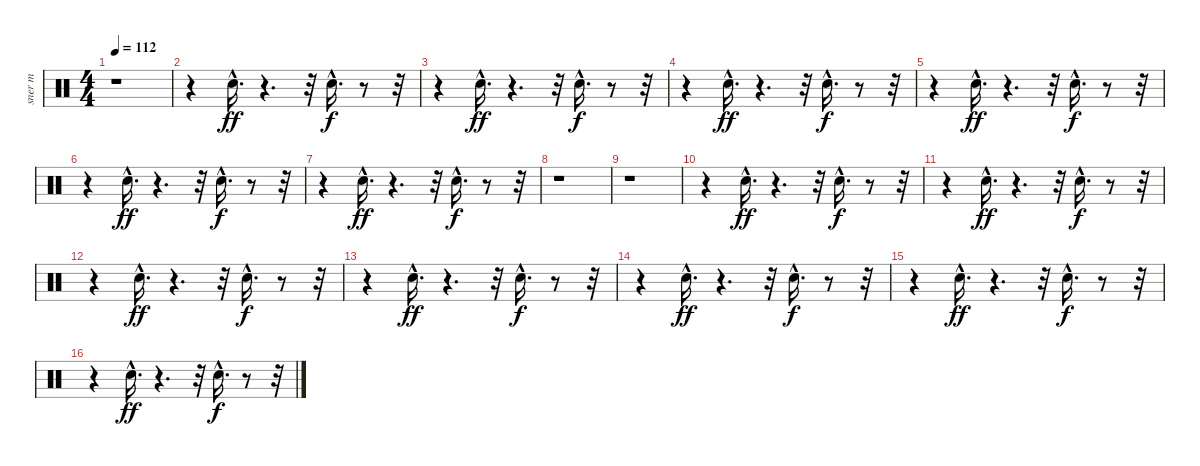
\track ("sner m" "sner m") {instrument percussion}
\staff {score}
\articulation defaults
\ts (4 4)
\tempo 112
\clef neutral
\ks c
r.1{dy ff} |
r.4 "Snare (hit) 2"{hac}.16{d} r.4{d} r.32 "Snare (hit) 2"{hac}.16{d dy f} r.8 r.32 |
r.4 "Snare (hit) 2"{hac}.16{d dy ff} r.4{d} r.32 "Snare (hit) 2"{hac}.16{d dy f} r.8 r.32 |
r.4 "Snare (hit) 2"{hac}.16{d dy ff} r.4{d} r.32 "Snare (hit) 2"{hac}.16{d dy f} r.8 r.32 |
r.4 "Snare (hit) 2"{hac}.16{d dy ff} r.4{d} r.32 "Snare (hit) 2"{hac}.16{d dy f} r.8 r.32 |
r.4 "Snare (hit) 2"{hac}.16{d dy ff} r.4{d} r.32 "Snare (hit) 2"{hac}.16{d dy f} r.8 r.32 |
r.4 "Snare (hit) 2"{hac}.16{d dy ff} r.4{d} r.32 "Snare (hit) 2"{hac}.16{d dy f} r.8 r.32 |
r.1 |
r.1 |
r.4 "Snare (hit) 2"{hac}.16{d dy ff} r.4{d} r.32 "Snare (hit) 2"{hac}.16{d dy f} r.8 r.32 |
r.4 "Snare (hit) 2"{hac}.16{d dy ff} r.4{d} r.32 "Snare (hit) 2"{hac}.16{d dy f} r.8 r.32 |
r.4 "Snare (hit) 2"{hac}.16{d dy ff} r.4{d} r.32 "Snare (hit) 2"{hac}.16{d dy f} r.8 r.32 |
r.4 "Snare (hit) 2"{hac}.16{d dy ff} r.4{d} r.32 "Snare (hit) 2"{hac}.16{d dy f} r.8 r.32 |
r.4 "Snare (hit) 2"{hac}.16{d dy ff} r.4{d} r.32 "Snare (hit) 2"{hac}.16{d dy f} r.8 r.32 |
r.4 "Snare (hit) 2"{hac}.16{d dy ff} r.4{d} r.32 "Snare (hit) 2"{hac}.16{d dy f} r.8 r.32 |
r.4 "Snare (hit) 2"{hac}.16{d dy ff} r.4{d} r.32 "Snare (hit) 2"{hac}.16{d dy f} r.8 r.32
